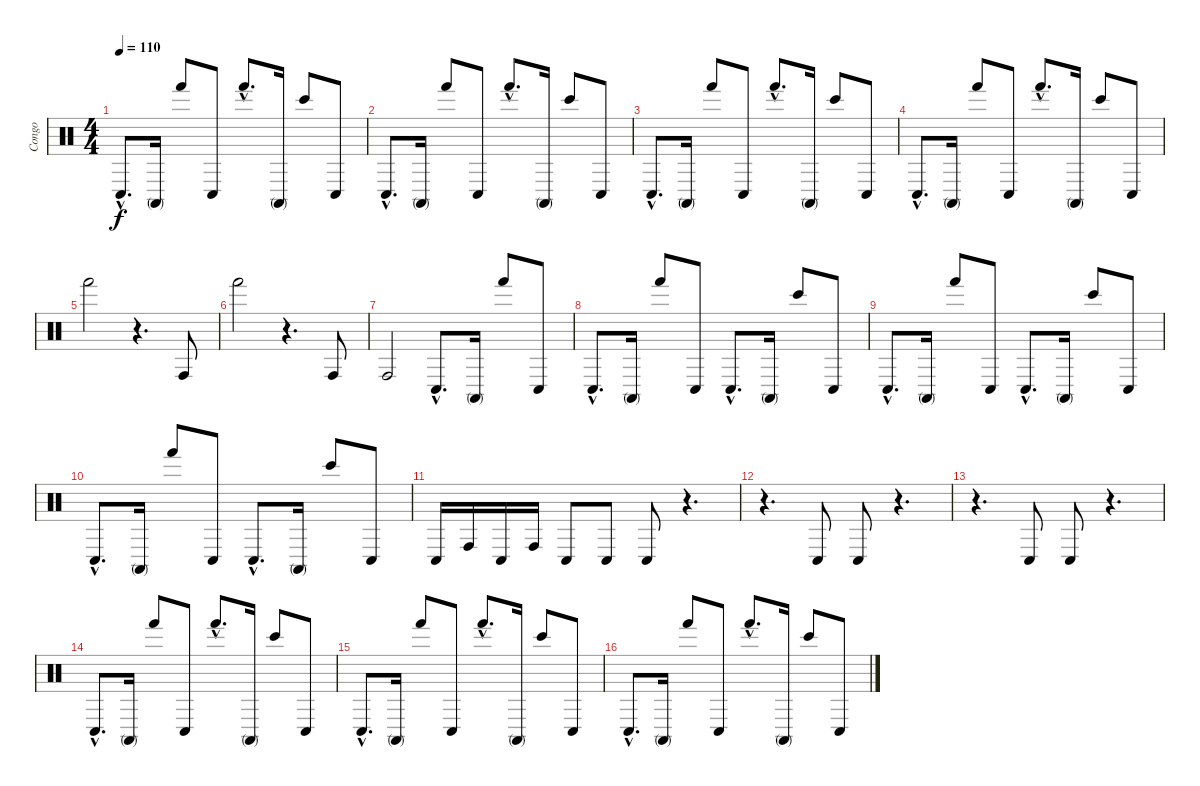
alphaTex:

\track ("Congo" "Congo") {instrument percussion}
\staff {score}
\articulation defaults
\ts (4 4)
\tempo 110
\clef neutral
\ks c "Conga low (hit)"{hac}.8{d dy f} "Conga high (mute)".16 "Hand (hit)".8 "Conga low (hit)".8 "Hand (hit)"{hac}.8{d} "Conga high (mute)".16 "Bongo High (hit)".8 "Conga low (hit)".8
|
"Conga low (hit)"{hac}.8{d} "Conga high (mute)".16 "Hand (hit)".8 "Conga low (hit)".8 "Hand (hit)"{hac}.8{d} "Conga high (mute)".16 "Bongo High (hit)".8 "Conga low (hit)".8 |
"Conga low (hit)"{hac}.8{d} "Conga high (mute)".16 "Hand (hit)".8 "Conga low (hit)".8 "Hand (hit)"{hac}.8{d} "Conga high (mute)".16 "Bongo High (hit)".8 "Conga low (hit)".8 |
"Conga low (hit)"{hac}.8{d} "Conga high (mute)".16 "Hand (hit)".8 "Conga low (hit)".8 "Hand (hit)"{hac}.8{d} "Conga high (mute)".16 "Bongo High (hit)".8 "Conga low (hit)".8 |
"Hand (hit)".2 r.4{d} "Conga high (hit)".8 |
"Hand (hit)".2 r.4{d} "Conga high (hit)".8 |
"Conga high (hit)".2 "Conga low (hit)"{hac}.8{d} "Conga high (mute)".16 "Hand (hit)".8 "Conga low (hit)".8 |
"Conga low (hit)"{hac}.8{d} "Conga high (mute)".16 "Hand (hit)".8 "Conga low (hit)".8 "Conga low (hit)"{hac}.8{d} "Conga high (mute)".16 "Bongo High (hit)".8 "Conga low (hit)".8 |
"Conga low (hit)"{hac}.8{d} "Conga high (mute)".16 "Hand (hit)".8 "Conga low (hit)".8 "Conga low (hit)"{hac}.8{d} "Conga high (mute)".16 "Bongo High (hit)".8 "Conga low (hit)".8 |
"Conga low (hit)"{hac}.8{d} "Conga high (mute)".16 "Hand (hit)".8 "Conga low (hit)".8 "Conga low (hit)"{hac}.8{d} "Conga high (mute)".16 "Bongo High (hit)".8 "Conga low (hit)".8 |
"Conga low (hit)".16 "Conga high (hit)".16 "Conga low (hit)".16 "Conga high (hit)".16 "Conga low (hit)".8 "Conga low (hit)".8 "Conga low (hit)".8 r.4{d} |
r.4{d} "Conga low (hit)".8 "Conga low (hit)".8 r.4{d} |
r.4{d} "Conga low (hit)".8 "Conga low (hit)".8 r.4{d} |
"Conga low (hit)"{hac}.8{d} "Conga high (mute)".16 "Hand (hit)".8 "Conga low (hit)".8 "Hand (hit)"{hac}.8{d} "Conga high (mute)".16 "Bongo High (hit)".8 "Conga low (hit)".8 |
"Conga low (hit)"{hac}.8{d} "Conga high (mute)".16 "Hand (hit)".8 "Conga low (hit)".8 "Hand (hit)"{hac}.8{d} "Conga high (mute)".16 "Bongo High (hit)".8 "Conga low (hit)".8 |
"Conga low (hit)"{hac}.8{d} "Conga high (mute)".16 "Hand (hit)".8 "Conga low (hit)".8 "Hand (hit)"{hac}.8{d} "Conga high (mute)".16 "Bongo High (hit)".8 "Conga low (hit)".8
